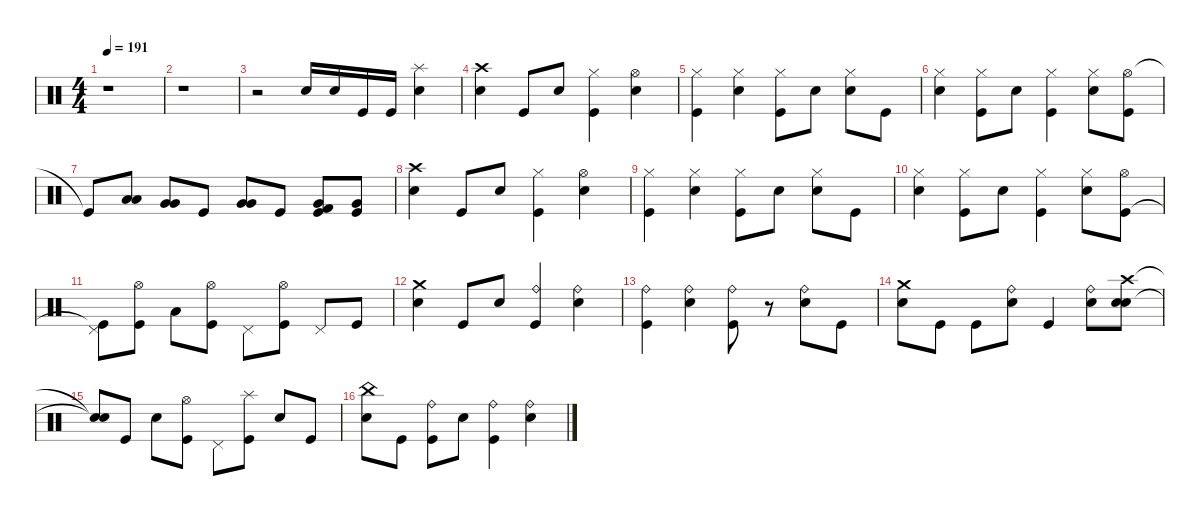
\defaultSystemsLayout 4
\hideDynamics
\bracketExtendMode nobrackets
\singleTrackTrackNamePolicy hidden
\multiTrackTrackNamePolicy hidden
\firstSystemTrackNameMode fullname
\firstSystemTrackNameOrientation horizontal
\otherSystemsTrackNameOrientation horizontal
\track ("Drumkit" "drm.") {instrument percussion}
\staff {score}
\articulation defaults
\ts (4 4)
\tempo 191
\clef neutral
\ks c
r.1{dy f beam Down} |
r.1{beam Down} |
r.2{beam Down} "Snare (hit) 2".16{beam Up} "Snare (hit) 2".16{beam Up} "Kick (hit)".16{beam Up} "Kick (hit)".16{beam Up} ("Snare (hit) 2" "Splash (hit)").4{dy ff beam Down} |
("Crash high (hit)" "Snare (hit) 2").4{dy mf beam Down} "Kick (hit)".8{dy f beam Up} "Snare (hit) 2".8{dy mf beam Up} ("Hi-Hat (closed)" "Kick (hit)").4{beam Down} ("Hi-Hat (open)" "Snare (hit) 2").4{beam Down} |
("Hi-Hat (closed)" "Kick (hit)").4{beam Down} ("Hi-Hat (closed)" "Snare (hit) 2").4{beam Down} ("Hi-Hat (closed)" "Kick (hit)").8{beam Down} "Snare (hit) 2".8{dy mp beam Down} ("Hi-Hat (closed)" "Snare (hit) 2").8{dy mf beam Down} "Kick (hit)".8{dy f beam Down} |
("Hi-Hat (closed)" "Snare (hit) 2").4{dy mf beam Down} ("Hi-Hat (closed)" "Kick (hit)").8{beam Down} "Snare (hit) 2".8{dy f beam Down} ("Hi-Hat (closed)" "Kick (hit)").4{dy mf beam Down} ("Hi-Hat (closed)" "Snare (hit) 2").8{beam Down} ("Hi-Hat (open)" "Kick (hit)").8{beam Down} |
"Kick (hit)"{t}.8{dy f beam Up} ("Low Tom (hit)" "Low Tom (hit)").8{dy mp beam Up} ("Very Low Tom (hit)" "Very Low Tom (hit)").8{beam Up} "Kick (hit)".8{dy f beam Up} ("Very Low Tom (hit)" "Very Low Tom (hit)").8{dy mp beam Up} "Kick (hit)".8{dy f beam Up} ("Kick (hit)" "Kick (hit) 2" "Very Low Tom (hit)").8{dy mf beam Up} ("Kick (hit)" "Very Low Tom (hit)").8{dy f beam Up} |
("Crash high (hit)" "Snare (hit) 2").4{dy mf beam Down} "Kick (hit)".8{dy f beam Up} "Snare (hit) 2".8{dy mf beam Up} ("Hi-Hat (closed)" "Kick (hit)").4{beam Down} ("Hi-Hat (open)" "Snare (hit) 2").4{beam Down} |
("Hi-Hat (closed)" "Kick (hit)").4{beam Down} ("Hi-Hat (closed)" "Snare (hit) 2").4{beam Down} ("Hi-Hat (closed)" "Kick (hit)").8{beam Down} "Snare (hit) 2".8{dy mp beam Down} ("Hi-Hat (closed)" "Snare (hit) 2").8{dy mf beam Down} "Kick (hit)".8{dy f beam Down} |
("Hi-Hat (closed)" "Snare (hit) 2").4{dy mf beam Down} ("Hi-Hat (closed)" "Kick (hit)").8{beam Down} "Snare (hit) 2".8{dy f beam Down} ("Hi-Hat (closed)" "Kick (hit)").4{dy mf beam Down} ("Hi-Hat (closed)" "Snare (hit) 2").8{beam Down} ("Hi-Hat (open)" "Kick (hit)").8{beam Down} |
("Pedal Hi-Hat (hit)" "Kick (hit)"{t}).8{dy mp beam Down} ("Hi-Hat (open)" "Kick (hit)").8{beam Down} "Low Tom (hit)".8{beam Down} ("Hi-Hat (open)" "Kick (hit)").8{beam Down} "Pedal Hi-Hat (hit)".8{beam Down} ("Hi-Hat (open)" "Kick (hit)").8{beam Down} "Pedal Hi-Hat (hit)".8{beam Up} "Kick (hit)".8{dy f beam Up} |
("Crash medium (hit)" "Snare (hit) 2").4{dy mf beam Down} "Kick (hit)".8{dy f beam Up} "Snare (hit) 2".8{dy mf beam Up} ("Ride (bell)" "Kick (hit)").4{beam Up} ("Ride (bell)" "Snare (hit) 2").4{beam Down} |
("Ride (bell)" "Kick (hit)").4{beam Down} ("Ride (bell)" "Snare (hit) 2").4{beam Down} ("Ride (bell)" "Kick (hit)").8{beam Down} r.8{beam Down} ("Ride (bell)" "Snare (hit) 2").8{beam Down} "Kick (hit)".8{dy f beam Down} |
("Crash medium (hit)" "Snare (hit) 2").8{dy mp beam Down} "Kick (hit)".8{dy f beam Down} "Kick (hit)".8{beam Down} ("Ride (bell)" "Snare (hit) 2").8{dy mp beam Down} "Kick (hit)".4{dy f beam Up} ("Ride (bell)" "Snare (hit) 2").8{dy mp beam Down} ("Crash high (hit)" "Snare (hit) 2" "Snare (hit) 2").8{beam Down} |
("Snare (hit) 2"{t} "Snare (hit) 2"{t}).8{dy f beam Up} "Kick (hit)".8{beam Up} "Snare (hit) 2".8{beam Down} ("Kick (hit)" "Hi-Hat (open)").8{beam Down} "Pedal Hi-Hat (hit)".8{beam Down} ("Splash (hit)" "Kick (hit)").8{beam Down} "Snare (hit) 2".8{beam Up} "Kick (hit)".8{beam Up} |
("Snare (hit) 2" "China (hit)").8{beam Down} "Kick (hit)".8{beam Down} ("Kick (hit)" "Ride (bell)").8{beam Down} "Snare (hit) 2".8{beam Down} ("Kick (hit)" "Ride (bell)").4{beam Down} ("Snare (hit) 2" "Ride (bell)").4{beam Down}
